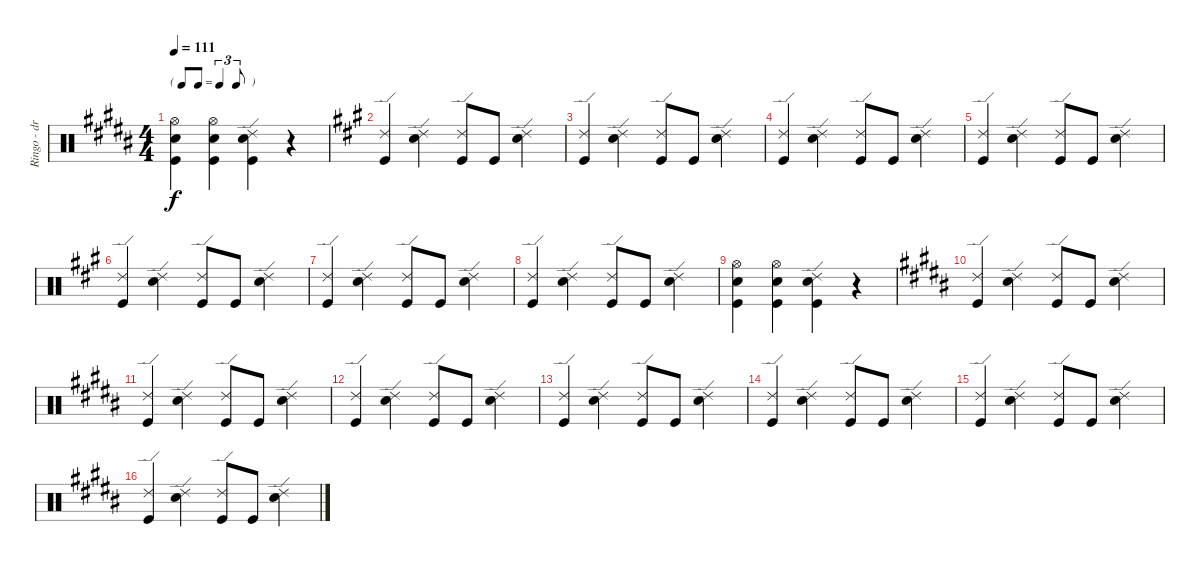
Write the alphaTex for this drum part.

\track ("Ringo - drums" "Ringo - dr") {instrument percussion}
\staff {score}
\articulation defaults
\ts (4 4)
\tf triplet8th
\tempo 111
\clef neutral
\ks b
("Hi-Hat (open)" "Snare (hit) 2" "Kick (hit)").4{dy f} ("Hi-Hat (open)" "Snare (hit) 2" "Kick (hit)").4 ("Ride (edge) 2" "Snare (hit) 2" "Kick (hit)").4 r.4 |
\ks a
("Ride (edge) 2" "Kick (hit)").4 ("Ride (edge) 2" "Snare (hit) 2").4 ("Ride (edge) 2" "Kick (hit)").8 "Kick (hit)".8 ("Ride (edge) 2" "Snare (hit) 2").4 |
("Ride (edge) 2" "Kick (hit)").4 ("Ride (edge) 2" "Snare (hit) 2").4 ("Ride (edge) 2" "Kick (hit)").8 "Kick (hit)".8 ("Ride (edge) 2" "Snare (hit) 2").4 |
("Ride (edge) 2" "Kick (hit)").4 ("Ride (edge) 2" "Snare (hit) 2").4 ("Ride (edge) 2" "Kick (hit)").8 "Kick (hit)".8 ("Ride (edge) 2" "Snare (hit) 2").4 |
("Ride (edge) 2" "Kick (hit)").4 ("Ride (edge) 2" "Snare (hit) 2").4 ("Ride (edge) 2" "Kick (hit)").8 "Kick (hit)".8 ("Ride (edge) 2" "Snare (hit) 2").4 |
("Ride (edge) 2" "Kick (hit)").4 ("Ride (edge) 2" "Snare (hit) 2").4 ("Ride (edge) 2" "Kick (hit)").8 "Kick (hit)".8 ("Ride (edge) 2" "Snare (hit) 2").4 |
("Ride (edge) 2" "Kick (hit)").4 ("Ride (edge) 2" "Snare (hit) 2").4 ("Ride (edge) 2" "Kick (hit)").8 "Kick (hit)".8 ("Ride (edge) 2" "Snare (hit) 2").4 |
("Ride (edge) 2" "Kick (hit)").4 ("Ride (edge) 2" "Snare (hit) 2").4 ("Ride (edge) 2" "Kick (hit)").8 "Kick (hit)".8 ("Ride (edge) 2" "Snare (hit) 2").4 |
("Hi-Hat (open)" "Snare (hit) 2" "Kick (hit)").4 ("Hi-Hat (open)" "Snare (hit) 2" "Kick (hit)").4 ("Ride (edge) 2" "Snare (hit) 2" "Kick (hit)").4 r.4 |
\ks b
("Ride (edge) 2" "Kick (hit)").4 ("Ride (edge) 2" "Snare (hit) 2").4 ("Ride (edge) 2" "Kick (hit)").8 "Kick (hit)".8 ("Ride (edge) 2" "Snare (hit) 2").4 |
("Ride (edge) 2" "Kick (hit)").4 ("Ride (edge) 2" "Snare (hit) 2").4 ("Ride (edge) 2" "Kick (hit)").8 "Kick (hit)".8 ("Ride (edge) 2" "Snare (hit) 2").4 |
("Ride (edge) 2" "Kick (hit)").4 ("Ride (edge) 2" "Snare (hit) 2").4 ("Ride (edge) 2" "Kick (hit)").8 "Kick (hit)".8 ("Ride (edge) 2" "Snare (hit) 2").4 |
("Ride (edge) 2" "Kick (hit)").4 ("Ride (edge) 2" "Snare (hit) 2").4 ("Ride (edge) 2" "Kick (hit)").8 "Kick (hit)".8 ("Ride (edge) 2" "Snare (hit) 2").4 |
("Ride (edge) 2" "Kick (hit)").4 ("Ride (edge) 2" "Snare (hit) 2").4 ("Ride (edge) 2" "Kick (hit)").8 "Kick (hit)".8 ("Ride (edge) 2" "Snare (hit) 2").4 |
("Ride (edge) 2" "Kick (hit)").4 ("Ride (edge) 2" "Snare (hit) 2").4 ("Ride (edge) 2" "Kick (hit)").8 "Kick (hit)".8 ("Ride (edge) 2" "Snare (hit) 2").4 |
("Ride (edge) 2" "Kick (hit)").4 ("Ride (edge) 2" "Snare (hit) 2").4 ("Ride (edge) 2" "Kick (hit)").8 "Kick (hit)".8 ("Ride (edge) 2" "Snare (hit) 2").4
